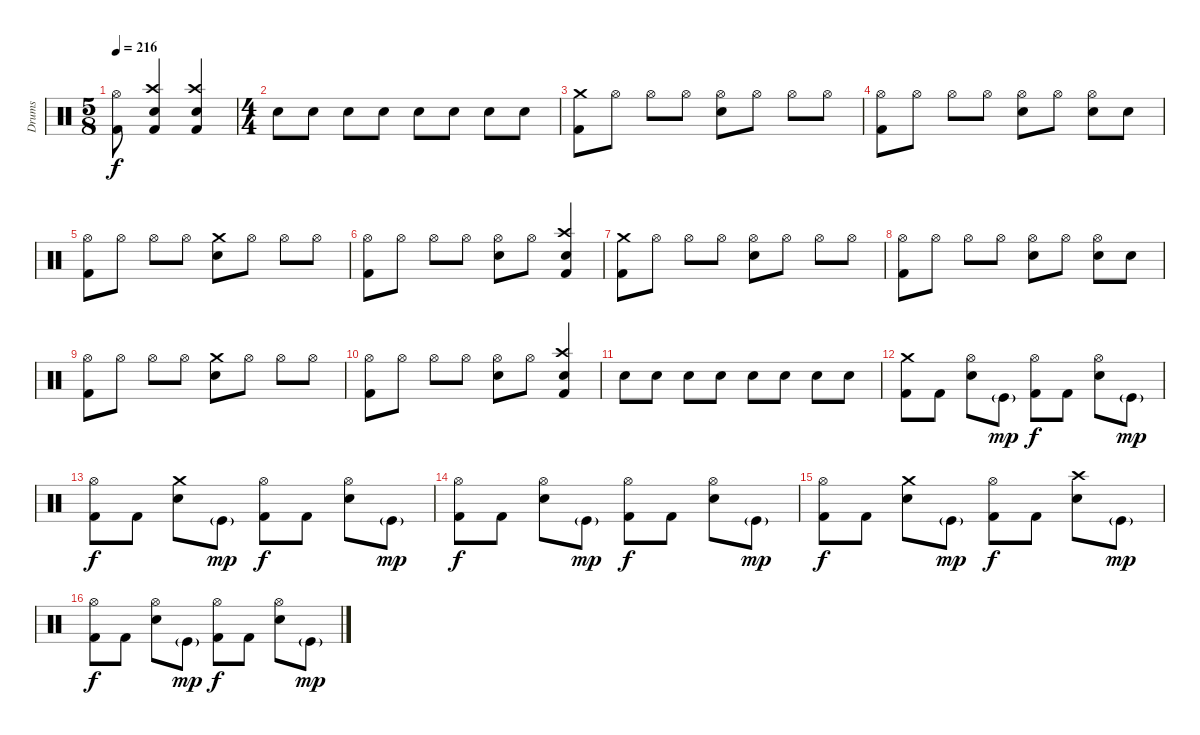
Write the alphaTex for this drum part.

\track ("Drums" "Drums") {instrument percussion}
\staff {score}
\articulation defaults
\ts (5 8)
\tempo 216
\clef neutral
\ks c
("Hi-Hat (open)" "Kick (hit) 2").8{dy f} ("Crash high (hit)" "Snare (hit) 2" "Kick (hit) 2").4 ("Crash high (hit)" "Snare (hit) 2" "Kick (hit) 2").4 |
\ts (4 4)
"Snare (hit) 2".8 "Snare (hit) 2".8 "Snare (hit) 2".8 "Snare (hit) 2".8 "Snare (hit) 2".8 "Snare (hit) 2".8 "Snare (hit) 2".8 "Snare (hit) 2".8 |
("Crash medium (hit)" "Kick (hit) 2").8 "Hi-Hat (open)".8 "Hi-Hat (open)".8 "Hi-Hat (open)".8 ("Hi-Hat (open)" "Snare (hit) 2").8 "Hi-Hat (open)".8 "Hi-Hat (open)".8 "Hi-Hat (open)".8 |
("Hi-Hat (open)" "Kick (hit) 2").8 "Hi-Hat (open)".8 "Hi-Hat (open)".8 "Hi-Hat (open)".8 ("Hi-Hat (open)" "Snare (hit) 2").8 "Hi-Hat (open)".8 ("Hi-Hat (open)" "Snare (hit) 2").8 "Snare (hit) 2".8 |
("Hi-Hat (open)" "Kick (hit) 2").8 "Hi-Hat (open)".8 "Hi-Hat (open)".8 "Hi-Hat (open)".8 ("Crash medium (hit)" "Snare (hit) 2").8 "Hi-Hat (open)".8 "Hi-Hat (open)".8 "Hi-Hat (open)".8 |
("Hi-Hat (open)" "Kick (hit) 2").8 "Hi-Hat (open)".8 "Hi-Hat (open)".8 "Hi-Hat (open)".8 ("Hi-Hat (open)" "Snare (hit) 2").8 "Hi-Hat (open)".8 ("Crash high (hit)" "Snare (hit) 2" "Kick (hit) 2").4 |
("Crash medium (hit)" "Kick (hit) 2").8 "Hi-Hat (open)".8 "Hi-Hat (open)".8 "Hi-Hat (open)".8 ("Hi-Hat (open)" "Snare (hit) 2").8 "Hi-Hat (open)".8 "Hi-Hat (open)".8 "Hi-Hat (open)".8 |
("Hi-Hat (open)" "Kick (hit) 2").8 "Hi-Hat (open)".8 "Hi-Hat (open)".8 "Hi-Hat (open)".8 ("Hi-Hat (open)" "Snare (hit) 2").8 "Hi-Hat (open)".8 ("Hi-Hat (open)" "Snare (hit) 2").8 "Snare (hit) 2".8 |
("Hi-Hat (open)" "Kick (hit) 2").8 "Hi-Hat (open)".8 "Hi-Hat (open)".8 "Hi-Hat (open)".8 ("Crash medium (hit)" "Snare (hit) 2").8 "Hi-Hat (open)".8 "Hi-Hat (open)".8 "Hi-Hat (open)".8 |
("Hi-Hat (open)" "Kick (hit) 2").8 "Hi-Hat (open)".8 "Hi-Hat (open)".8 "Hi-Hat (open)".8 ("Hi-Hat (open)" "Snare (hit) 2").8 "Hi-Hat (open)".8 ("Crash high (hit)" "Snare (hit) 2" "Kick (hit) 2").4 |
"Snare (hit) 2".8 "Snare (hit) 2".8 "Snare (hit) 2".8 "Snare (hit) 2".8 "Snare (hit) 2".8 "Snare (hit) 2".8 "Snare (hit) 2".8 "Snare (hit) 2".8 |
("Crash medium (hit)" "Kick (hit) 2").8 "Kick (hit) 2".8 ("Hi-Hat (open)" "Snare (hit) 2").8 "Kick (hit)"{g}.8{dy mp} ("Hi-Hat (open)" "Kick (hit) 2").8{dy f} "Kick (hit) 2".8 ("Hi-Hat (open)" "Snare (hit) 2").8 "Kick (hit)"{g}.8{dy mp} |
("Hi-Hat (open)" "Kick (hit) 2").8{dy f} "Kick (hit) 2".8 ("Crash medium (hit)" "Snare (hit) 2").8 "Kick (hit)"{g}.8{dy mp} ("Hi-Hat (open)" "Kick (hit) 2").8{dy f} "Kick (hit) 2".8 ("Hi-Hat (open)" "Snare (hit) 2").8 "Kick (hit)"{g}.8{dy mp} |
("Hi-Hat (open)" "Kick (hit) 2").8{dy f} "Kick (hit) 2".8 ("Hi-Hat (open)" "Snare (hit) 2").8 "Kick (hit)"{g}.8{dy mp} ("Hi-Hat (open)" "Kick (hit) 2").8{dy f} "Kick (hit) 2".8 ("Hi-Hat (open)" "Snare (hit) 2").8 "Kick (hit)"{g}.8{dy mp} |
("Hi-Hat (open)" "Kick (hit) 2").8{dy f} "Kick (hit) 2".8 ("Crash medium (hit)" "Snare (hit) 2").8 "Kick (hit)"{g}.8{dy mp} ("Hi-Hat (open)" "Kick (hit) 2").8{dy f} "Kick (hit) 2".8 ("Crash high (hit)" "Snare (hit) 2").8 "Kick (hit)"{g}.8{dy mp} |
("Hi-Hat (open)" "Kick (hit) 2").8{dy f} "Kick (hit) 2".8 ("Hi-Hat (open)" "Snare (hit) 2").8 "Kick (hit)"{g}.8{dy mp} ("Hi-Hat (open)" "Kick (hit) 2").8{dy f} "Kick (hit) 2".8 ("Hi-Hat (open)" "Snare (hit) 2").8 "Kick (hit)"{g}.8{dy mp}
